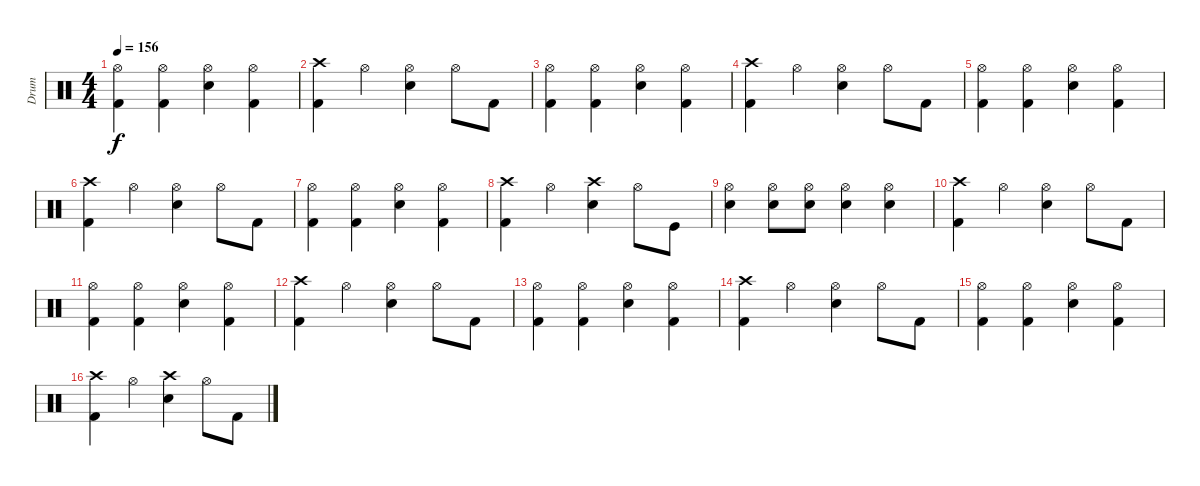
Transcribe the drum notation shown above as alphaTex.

\track ("Drum" "Drum") {instrument percussion}
\staff {score}
\articulation defaults
\ts (4 4)
\tempo 156
\clef neutral
\ks c
("Hi-Hat (open)" "Kick (hit) 2").4{dy f} ("Hi-Hat (open)" "Kick (hit) 2").4 ("Hi-Hat (open)" "Electric Snare (hit)").4 ("Hi-Hat (open)" "Kick (hit) 2").4 |
("Crash high (hit)" "Kick (hit) 2").4 "Hi-Hat (open)".4 ("Hi-Hat (open)" "Electric Snare (hit)").4 "Hi-Hat (open)".8 "Kick (hit) 2".8 |
("Hi-Hat (open)" "Kick (hit) 2").4 ("Hi-Hat (open)" "Kick (hit) 2").4 ("Hi-Hat (open)" "Electric Snare (hit)").4 ("Hi-Hat (open)" "Kick (hit) 2").4 |
("Crash high (hit)" "Kick (hit) 2").4 "Hi-Hat (open)".4 ("Hi-Hat (open)" "Electric Snare (hit)").4 "Hi-Hat (open)".8 "Kick (hit) 2".8 |
("Hi-Hat (open)" "Kick (hit) 2").4 ("Hi-Hat (open)" "Kick (hit) 2").4 ("Hi-Hat (open)" "Electric Snare (hit)").4 ("Hi-Hat (open)" "Kick (hit) 2").4 |
("Crash high (hit)" "Kick (hit) 2").4 "Hi-Hat (open)".4 ("Hi-Hat (open)" "Electric Snare (hit)").4 "Hi-Hat (open)".8 "Kick (hit) 2".8 |
("Hi-Hat (open)" "Kick (hit) 2").4 ("Hi-Hat (open)" "Kick (hit) 2").4 ("Hi-Hat (open)" "Electric Snare (hit)").4 ("Hi-Hat (open)" "Kick (hit) 2").4 |
("Crash high (hit)" "Kick (hit) 2").4 "Hi-Hat (open)".4 ("Crash high (hit)" "Electric Snare (hit)").4 "Hi-Hat (open)".8 "Kick (hit)".8 |
("Hi-Hat (open)" "Electric Snare (hit)").4 ("Hi-Hat (open)" "Electric Snare (hit)").8 ("Hi-Hat (open)" "Electric Snare (hit)").8 ("Hi-Hat (open)" "Electric Snare (hit)").4 ("Hi-Hat (open)" "Electric Snare (hit)").4 |
("Crash high (hit)" "Kick (hit) 2").4 "Hi-Hat (open)".4 ("Hi-Hat (open)" "Electric Snare (hit)").4 "Hi-Hat (open)".8 "Kick (hit) 2".8 |
("Hi-Hat (open)" "Kick (hit) 2").4 ("Hi-Hat (open)" "Kick (hit) 2").4 ("Hi-Hat (open)" "Electric Snare (hit)").4 ("Hi-Hat (open)" "Kick (hit) 2").4 |
("Crash high (hit)" "Kick (hit) 2").4 "Hi-Hat (open)".4 ("Hi-Hat (open)" "Electric Snare (hit)").4 "Hi-Hat (open)".8 "Kick (hit) 2".8 |
("Hi-Hat (open)" "Kick (hit) 2").4 ("Hi-Hat (open)" "Kick (hit) 2").4 ("Hi-Hat (open)" "Electric Snare (hit)").4 ("Hi-Hat (open)" "Kick (hit) 2").4 |
("Crash high (hit)" "Kick (hit) 2").4 "Hi-Hat (open)".4 ("Hi-Hat (open)" "Electric Snare (hit)").4 "Hi-Hat (open)".8 "Kick (hit) 2".8 |
("Hi-Hat (open)" "Kick (hit) 2").4 ("Hi-Hat (open)" "Kick (hit) 2").4 ("Hi-Hat (open)" "Electric Snare (hit)").4 ("Hi-Hat (open)" "Kick (hit) 2").4 |
("Crash high (hit)" "Kick (hit) 2").4 "Hi-Hat (open)".4 ("Crash high (hit)" "Electric Snare (hit)").4 "Hi-Hat (open)".8 "Kick (hit) 2".8
